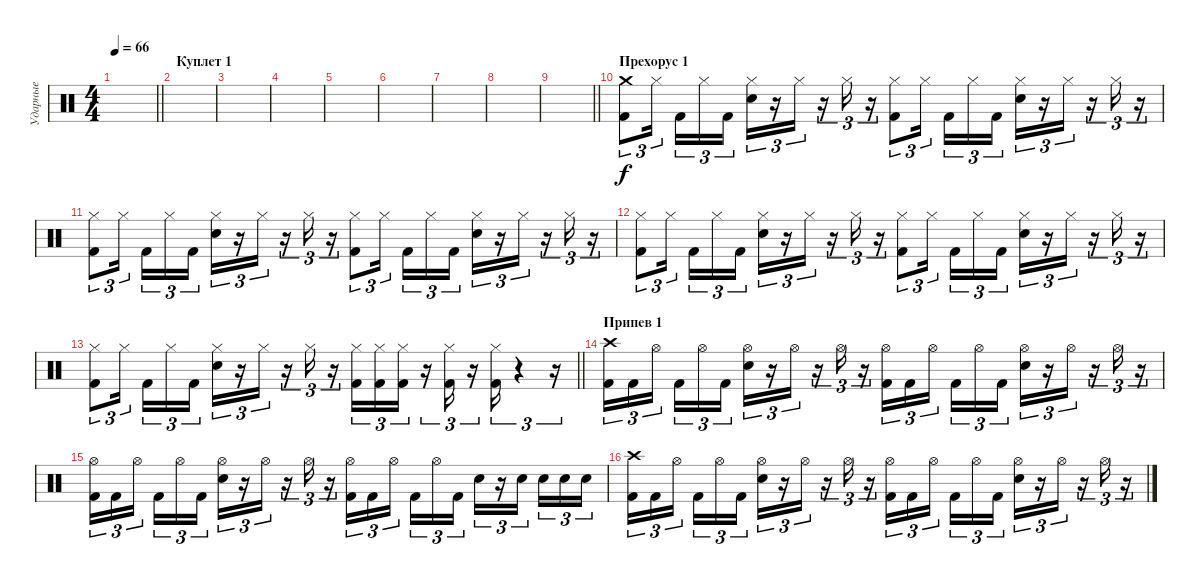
\track ("Ударные" "Ударные") {instrument percussion}
\staff {score}
\articulation defaults
\ts (4 4)
\tempo 66
\clef neutral
\barLineRight lightlight
\ks c
|
\section ("" "Куплет 1")
|
|
|
|
|
|
|
\barLineRight lightlight
|
\section ("" "Прехорус 1")
("Crash medium (hit)" "Kick (hit) 2").8{tu (3 2)} "Hi-Hat (closed)".16{tu (3 2)} "Kick (hit) 2".16{tu (3 2)} "Hi-Hat (closed)".16{tu (3 2)} "Kick (hit) 2".16{tu (3 2)} ("Hi-Hat (closed)" "Snare (hit) 2").16{tu (3 2)} r.16{tu (3 2)} "Hi-Hat (closed)".16{tu (3 2)} r.16{tu (3 2)} "Hi-Hat (closed)".16{tu (3 2)} r.16{tu (3 2)} ("Hi-Hat (closed)" "Kick (hit) 2").8{tu (3 2)} "Hi-Hat (closed)".16{tu (3 2)} "Kick (hit) 2".16{tu (3 2)} "Hi-Hat (closed)".16{tu (3 2)} "Kick (hit) 2".16{tu (3 2)} ("Hi-Hat (closed)" "Snare (hit) 2").16{tu (3 2)} r.16{tu (3 2)} "Hi-Hat (closed)".16{tu (3 2)} r.16{tu (3 2)} "Hi-Hat (closed)".16{tu (3 2)} r.16{tu (3 2)} |
("Hi-Hat (closed)" "Kick (hit) 2").8{tu (3 2)} "Hi-Hat (closed)".16{tu (3 2)} "Kick (hit) 2".16{tu (3 2)} "Hi-Hat (closed)".16{tu (3 2)} "Kick (hit) 2".16{tu (3 2)} ("Hi-Hat (closed)" "Snare (hit) 2").16{tu (3 2)} r.16{tu (3 2)} "Hi-Hat (closed)".16{tu (3 2)} r.16{tu (3 2)} "Hi-Hat (closed)".16{tu (3 2)} r.16{tu (3 2)} ("Hi-Hat (closed)" "Kick (hit) 2").8{tu (3 2)} "Hi-Hat (closed)".16{tu (3 2)} "Kick (hit) 2".16{tu (3 2)} "Hi-Hat (closed)".16{tu (3 2)} "Kick (hit) 2".16{tu (3 2)} ("Hi-Hat (closed)" "Snare (hit) 2").16{tu (3 2)} r.16{tu (3 2)} "Hi-Hat (closed)".16{tu (3 2)} r.16{tu (3 2)} "Hi-Hat (closed)".16{tu (3 2)} r.16{tu (3 2)} |
("Hi-Hat (closed)" "Kick (hit) 2").8{tu (3 2)} "Hi-Hat (closed)".16{tu (3 2)} "Kick (hit) 2".16{tu (3 2)} "Hi-Hat (closed)".16{tu (3 2)} "Kick (hit) 2".16{tu (3 2)} ("Hi-Hat (closed)" "Snare (hit) 2").16{tu (3 2)} r.16{tu (3 2)} "Hi-Hat (closed)".16{tu (3 2)} r.16{tu (3 2)} "Hi-Hat (closed)".16{tu (3 2)} r.16{tu (3 2)} ("Hi-Hat (closed)" "Kick (hit) 2").8{tu (3 2)} "Hi-Hat (closed)".16{tu (3 2)} "Kick (hit) 2".16{tu (3 2)} "Hi-Hat (closed)".16{tu (3 2)} "Kick (hit) 2".16{tu (3 2)} ("Hi-Hat (closed)" "Snare (hit) 2").16{tu (3 2)} r.16{tu (3 2)} "Hi-Hat (closed)".16{tu (3 2)} r.16{tu (3 2)} "Hi-Hat (closed)".16{tu (3 2)} r.16{tu (3 2)} |
\barLineRight lightlight
("Hi-Hat (closed)" "Kick (hit) 2").8{tu (3 2)} "Hi-Hat (closed)".16{tu (3 2)} "Kick (hit) 2".16{tu (3 2)} "Hi-Hat (closed)".16{tu (3 2)} "Kick (hit) 2".16{tu (3 2)} ("Hi-Hat (closed)" "Snare (hit) 2").16{tu (3 2)} r.16{tu (3 2)} "Hi-Hat (closed)".16{tu (3 2)} r.16{tu (3 2)} "Hi-Hat (closed)".16{tu (3 2)} r.16{tu (3 2)} ("Hi-Hat (closed)" "Kick (hit) 2").16{tu (3 2)} ("Hi-Hat (closed)" "Kick (hit) 2").16{tu (3 2)} ("Hi-Hat (closed)" "Kick (hit) 2").16{tu (3 2)} r.16{tu (3 2)} ("Hi-Hat (closed)" "Kick (hit) 2").16{tu (3 2)} r.16{tu (3 2)} ("Hi-Hat (closed)" "Kick (hit) 2").16{tu (3 2)} r.4{tu (3 2)} r.16{tu (3 2)} |
\section ("" "Припев 1")
("Crash high (hit)" "Kick (hit) 2").16{tu (3 2)} "Kick (hit) 2".16{tu (3 2)} "Hi-Hat (open)".16{tu (3 2)} "Kick (hit) 2".16{tu (3 2)} "Hi-Hat (open)".16{tu (3 2)} "Kick (hit) 2".16{tu (3 2)} ("Hi-Hat (open)" "Snare (hit) 2").16{tu (3 2)} r.16{tu (3 2)} "Hi-Hat (open)".16{tu (3 2)} r.16{tu (3 2)} "Hi-Hat (open)".16{tu (3 2)} r.16{tu (3 2)} ("Hi-Hat (open)" "Kick (hit) 2").16{tu (3 2)} "Kick (hit) 2".16{tu (3 2)} "Hi-Hat (open)".16{tu (3 2)} "Kick (hit) 2".16{tu (3 2)} "Hi-Hat (open)".16{tu (3 2)} "Kick (hit) 2".16{tu (3 2)} ("Hi-Hat (open)" "Snare (hit) 2").16{tu (3 2)} r.16{tu (3 2)} "Hi-Hat (open)".16{tu (3 2)} r.16{tu (3 2)} "Hi-Hat (open)".16{tu (3 2)} r.16{tu (3 2)} |
("Hi-Hat (open)" "Kick (hit) 2").16{tu (3 2)} "Kick (hit) 2".16{tu (3 2)} "Hi-Hat (open)".16{tu (3 2)} "Kick (hit) 2".16{tu (3 2)} "Hi-Hat (open)".16{tu (3 2)} "Kick (hit) 2".16{tu (3 2)} ("Hi-Hat (open)" "Snare (hit) 2").16{tu (3 2)} r.16{tu (3 2)} "Hi-Hat (open)".16{tu (3 2)} r.16{tu (3 2)} "Hi-Hat (open)".16{tu (3 2)} r.16{tu (3 2)} ("Hi-Hat (open)" "Kick (hit) 2").16{tu (3 2)} "Kick (hit) 2".16{tu (3 2)} "Hi-Hat (open)".16{tu (3 2)} "Kick (hit) 2".16{tu (3 2)} "Hi-Hat (open)".16{tu (3 2)} "Kick (hit) 2".16{tu (3 2)} "Snare (hit) 2".16{tu (3 2)} r.16{tu (3 2)} "Snare (hit) 2".16{tu (3 2)} "Snare (hit) 2".16{tu (3 2)} "Snare (hit) 2".16{tu (3 2)} "Snare (hit) 2".16{tu (3 2)} |
("Crash high (hit)" "Kick (hit) 2").16{tu (3 2)} "Kick (hit) 2".16{tu (3 2)} "Hi-Hat (open)".16{tu (3 2)} "Kick (hit) 2".16{tu (3 2)} "Hi-Hat (open)".16{tu (3 2)} "Kick (hit) 2".16{tu (3 2)} ("Hi-Hat (open)" "Snare (hit) 2").16{tu (3 2)} r.16{tu (3 2)} "Hi-Hat (open)".16{tu (3 2)} r.16{tu (3 2)} "Hi-Hat (open)".16{tu (3 2)} r.16{tu (3 2)} ("Hi-Hat (open)" "Kick (hit) 2").16{tu (3 2)} "Kick (hit) 2".16{tu (3 2)} "Hi-Hat (open)".16{tu (3 2)} "Kick (hit) 2".16{tu (3 2)} "Hi-Hat (open)".16{tu (3 2)} "Kick (hit) 2".16{tu (3 2)} ("Hi-Hat (open)" "Snare (hit) 2").16{tu (3 2)} r.16{tu (3 2)} "Hi-Hat (open)".16{tu (3 2)} r.16{tu (3 2)} "Hi-Hat (open)".16{tu (3 2)} r.16{tu (3 2)}
